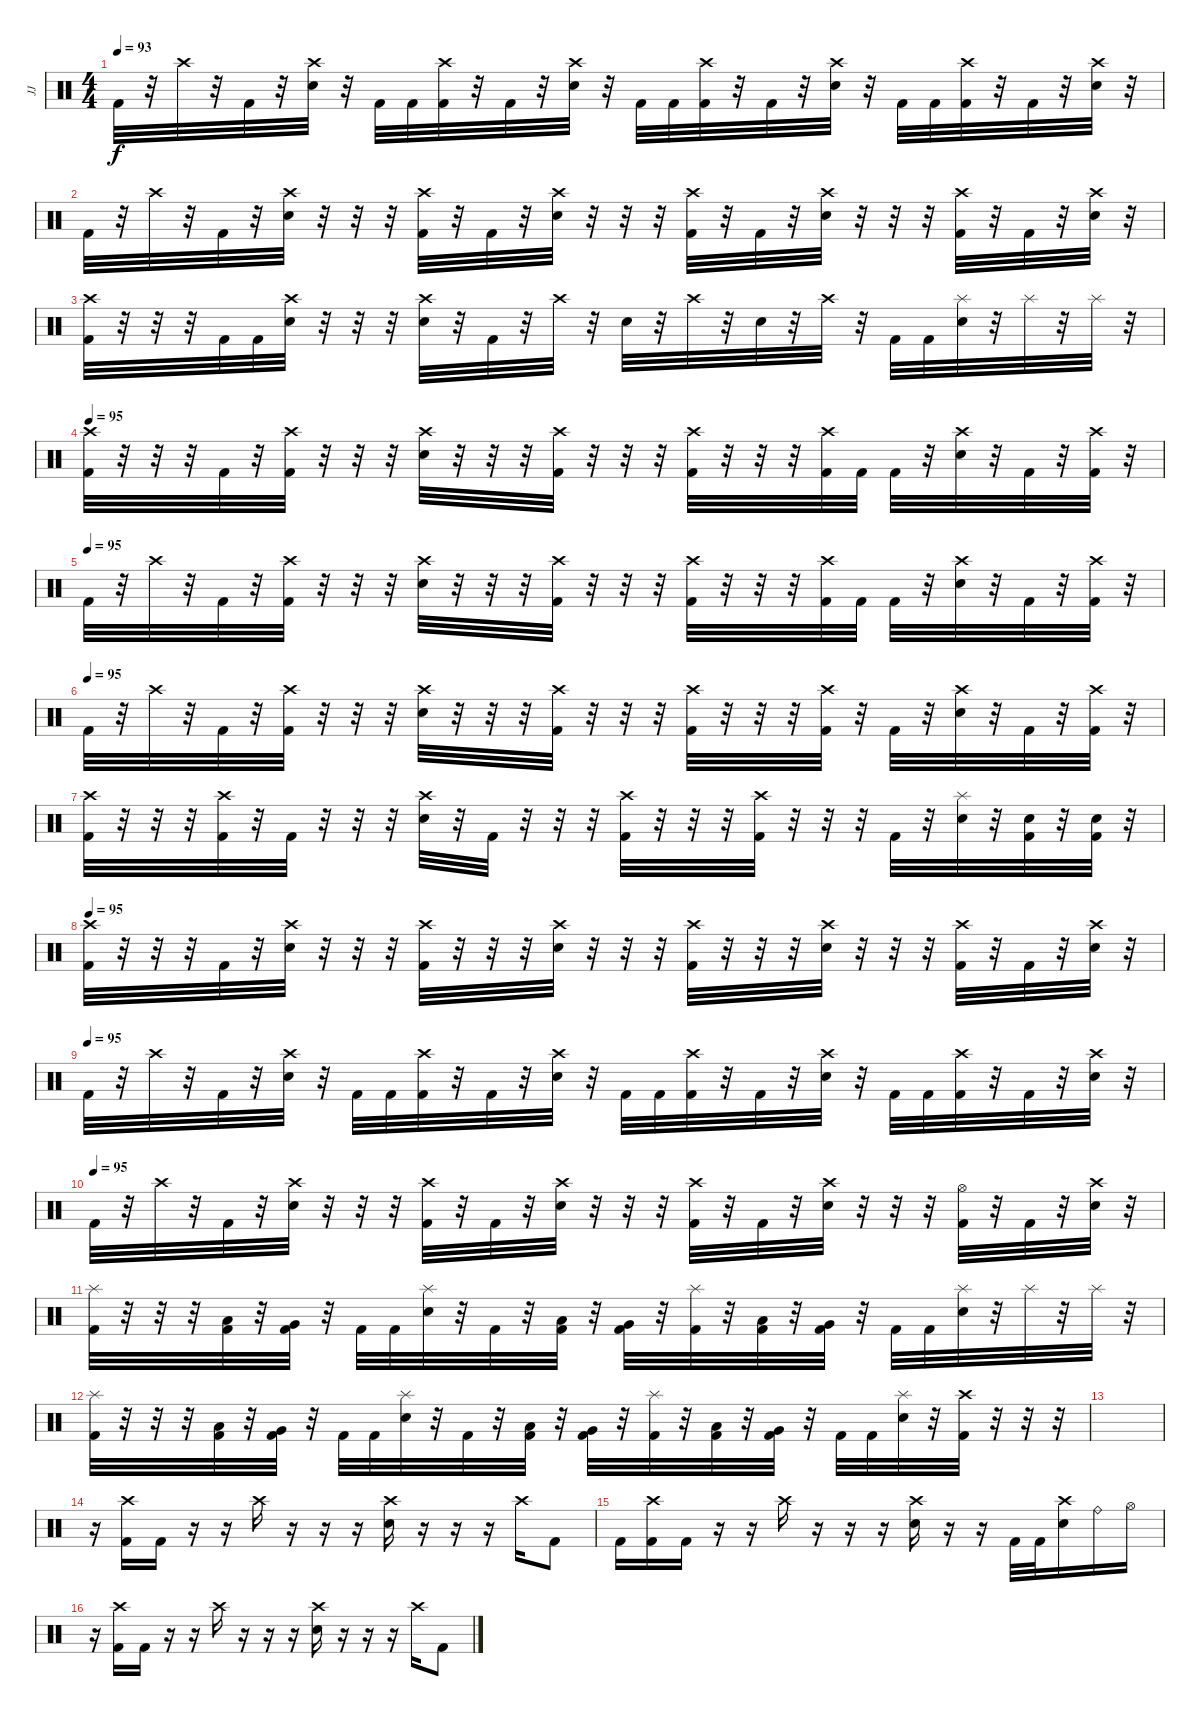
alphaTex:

\track ("JJ" "JJ") {instrument percussion}
\staff {score}
\articulation defaults
\ts (4 4)
\tempo 93
\clef neutral
\ks c "Kick (hit) 2".32{dy f volume 16}
r.32 "Crash high (hit)".32 r.32 "Kick (hit) 2".32 r.32 ("Crash high (hit)" "Electric Snare (hit)").32 r.32 "Kick (hit) 2".32 "Kick (hit) 2".32 ("Crash high (hit)" "Kick (hit) 2").32 r.32 "Kick (hit) 2".32 r.32 ("Crash high (hit)" "Electric Snare (hit)").32 r.32 "Kick (hit) 2".32 "Kick (hit) 2".32 ("Crash high (hit)" "Kick (hit) 2").32 r.32 "Kick (hit) 2".32 r.32 ("Crash high (hit)" "Electric Snare (hit)").32 r.32 "Kick (hit) 2".32 "Kick (hit) 2".32 ("Crash high (hit)" "Kick (hit) 2").32 r.32 "Kick (hit) 2".32 r.32 ("Crash high (hit)" "Electric Snare (hit)").32 r.32 |
"Kick (hit) 2".32 r.32 "Crash high (hit)".32 r.32 "Kick (hit) 2".32 r.32 ("Crash high (hit)" "Electric Snare (hit)").32 r.32 r.32 r.32 ("Crash high (hit)" "Kick (hit) 2").32 r.32 "Kick (hit) 2".32 r.32 ("Crash high (hit)" "Electric Snare (hit)").32 r.32 r.32 r.32 ("Crash high (hit)" "Kick (hit) 2").32 r.32 "Kick (hit) 2".32 r.32 ("Crash high (hit)" "Electric Snare (hit)").32 r.32 r.32 r.32 ("Crash high (hit)" "Kick (hit) 2").32 r.32 "Kick (hit) 2".32 r.32 ("Crash high (hit)" "Electric Snare (hit)").32 r.32 |
("Crash high (hit)" "Kick (hit) 2").32 r.32 r.32 r.32 "Kick (hit) 2".32 "Kick (hit) 2".32 ("Crash high (hit)" "Electric Snare (hit)").32 r.32 r.32 r.32 ("Crash high (hit)" "Electric Snare (hit)").32 r.32 "Kick (hit) 2".32 r.32 "Crash high (hit)".32 r.32 "Electric Snare (hit)".32 r.32 "Crash high (hit)".32 r.32 "Electric Snare (hit)".32 r.32 "Crash high (hit)".32 r.32 "Kick (hit) 2".32 "Kick (hit) 2".32 ("Splash (hit)" "Electric Snare (hit)").32 r.32 "Splash (hit)".32 r.32 "Splash (hit)".32 r.32 |
\tempo 95
("Crash high (hit)" "Kick (hit) 2").32 r.32 r.32 r.32 "Kick (hit) 2".32 r.32 ("Crash high (hit)" "Kick (hit) 2").32 r.32 r.32 r.32 ("Crash high (hit)" "Electric Snare (hit)").32 r.32 r.32 r.32 ("Crash high (hit)" "Kick (hit) 2").32 r.32 r.32 r.32 ("Crash high (hit)" "Kick (hit) 2").32 r.32 r.32 r.32 ("Crash high (hit)" "Kick (hit) 2").32 "Kick (hit) 2".32 "Kick (hit) 2".32 r.32 ("Crash high (hit)" "Electric Snare (hit)").32 r.32 "Kick (hit) 2".32 r.32 ("Crash high (hit)" "Kick (hit) 2").32 r.32 |
\tempo (95)
"Kick (hit) 2".32 r.32 "Crash high (hit)".32 r.32 "Kick (hit) 2".32 r.32 ("Crash high (hit)" "Kick (hit) 2").32 r.32 r.32 r.32 ("Crash high (hit)" "Electric Snare (hit)").32 r.32 r.32 r.32 ("Crash high (hit)" "Kick (hit) 2").32 r.32 r.32 r.32 ("Crash high (hit)" "Kick (hit) 2").32 r.32 r.32 r.32 ("Crash high (hit)" "Kick (hit) 2").32 "Kick (hit) 2".32 "Kick (hit) 2".32 r.32 ("Crash high (hit)" "Electric Snare (hit)").32 r.32 "Kick (hit) 2".32 r.32 ("Crash high (hit)" "Kick (hit) 2").32 r.32 |
\tempo (95)
"Kick (hit) 2".32 r.32 "Crash high (hit)".32 r.32 "Kick (hit) 2".32 r.32 ("Crash high (hit)" "Kick (hit) 2").32 r.32 r.32 r.32 ("Crash high (hit)" "Electric Snare (hit)").32 r.32 r.32 r.32 ("Crash high (hit)" "Kick (hit) 2").32 r.32 r.32 r.32 ("Crash high (hit)" "Kick (hit) 2").32 r.32 r.32 r.32 ("Crash high (hit)" "Kick (hit) 2").32 r.32 "Kick (hit) 2".32 r.32 ("Crash high (hit)" "Electric Snare (hit)").32 r.32 "Kick (hit) 2".32 r.32 ("Crash high (hit)" "Kick (hit) 2").32 r.32 |
("Crash high (hit)" "Kick (hit) 2").32 r.32 r.32 r.32 ("Crash high (hit)" "Kick (hit) 2").32 r.32 "Kick (hit) 2".32 r.32 r.32 r.32 ("Crash high (hit)" "Electric Snare (hit)").32 r.32 "Kick (hit) 2".32 r.32 r.32 r.32 ("Crash high (hit)" "Kick (hit) 2").32 r.32 r.32 r.32 ("Crash high (hit)" "Kick (hit) 2").32 r.32 r.32 r.32 "Kick (hit) 2".32 r.32 ("Splash (hit)" "Electric Snare (hit)").32 r.32 ("Electric Snare (hit)" "Kick (hit) 2").32 r.32 ("Electric Snare (hit)" "Kick (hit) 2").32 r.32 |
\tempo 95
("Crash high (hit)" "Kick (hit) 2").32 r.32 r.32 r.32 "Kick (hit) 2".32 r.32 ("Crash high (hit)" "Electric Snare (hit)").32 r.32 r.32 r.32 ("Crash high (hit)" "Kick (hit) 2").32 r.32 r.32 r.32 ("Crash high (hit)" "Electric Snare (hit)").32 r.32 r.32 r.32 ("Crash high (hit)" "Kick (hit) 2").32 r.32 r.32 r.32 ("Crash high (hit)" "Electric Snare (hit)").32 r.32 r.32 r.32 ("Crash high (hit)" "Kick (hit) 2").32 r.32 "Kick (hit) 2".32 r.32 ("Crash high (hit)" "Electric Snare (hit)").32 r.32 |
\tempo (95)
"Kick (hit) 2".32 r.32 "Crash high (hit)".32 r.32 "Kick (hit) 2".32 r.32 ("Crash high (hit)" "Electric Snare (hit)").32 r.32 "Kick (hit) 2".32 "Kick (hit) 2".32 ("Crash high (hit)" "Kick (hit) 2").32 r.32 "Kick (hit) 2".32 r.32 ("Crash high (hit)" "Electric Snare (hit)").32 r.32 "Kick (hit) 2".32 "Kick (hit) 2".32 ("Crash high (hit)" "Kick (hit) 2").32 r.32 "Kick (hit) 2".32 r.32 ("Crash high (hit)" "Electric Snare (hit)").32 r.32 "Kick (hit) 2".32 "Kick (hit) 2".32 ("Crash high (hit)" "Kick (hit) 2").32 r.32 "Kick (hit) 2".32 r.32 ("Crash high (hit)" "Electric Snare (hit)").32 r.32 |
\tempo (95)
"Kick (hit) 2".32 r.32 "Crash high (hit)".32 r.32 "Kick (hit) 2".32 r.32 ("Crash high (hit)" "Electric Snare (hit)").32 r.32 r.32 r.32 ("Crash high (hit)" "Kick (hit) 2").32 r.32 "Kick (hit) 2".32 r.32 ("Crash high (hit)" "Electric Snare (hit)").32 r.32 r.32 r.32 ("Crash high (hit)" "Kick (hit) 2").32 r.32 "Kick (hit) 2".32 r.32 ("Crash high (hit)" "Electric Snare (hit)").32 r.32 r.32 r.32 ("Hi-Hat (open)" "Kick (hit) 2").32 r.32 "Kick (hit) 2".32 r.32 ("Crash high (hit)" "Electric Snare (hit)").32 r.32 |
("Splash (hit)" "Kick (hit) 2").32 r.32 r.32 r.32 ("Low Tom (hit)" "Kick (hit) 2").32 r.32 ("Very Low Tom (hit)" "Kick (hit) 2").32 r.32 "Kick (hit) 2".32 "Kick (hit) 2".32 ("Splash (hit)" "Electric Snare (hit)").32 r.32 "Kick (hit) 2".32 r.32 ("Low Tom (hit)" "Kick (hit) 2").32 r.32 ("Very Low Tom (hit)" "Kick (hit) 2").32 r.32 ("Splash (hit)" "Kick (hit) 2").32 r.32 ("Low Tom (hit)" "Kick (hit) 2").32 r.32 ("Very Low Tom (hit)" "Kick (hit) 2").32 r.32 "Kick (hit) 2".32 "Kick (hit) 2".32 ("Splash (hit)" "Electric Snare (hit)").32 r.32 "Splash (hit)".32 r.32 "Splash (hit)".32 r.32 |
("Splash (hit)" "Kick (hit) 2").32 r.32 r.32 r.32 ("Low Tom (hit)" "Kick (hit) 2").32 r.32 ("Very Low Tom (hit)" "Kick (hit) 2").32 r.32 "Kick (hit) 2".32 "Kick (hit) 2".32 ("Splash (hit)" "Electric Snare (hit)").32 r.32 "Kick (hit) 2".32 r.32 ("Low Tom (hit)" "Kick (hit) 2").32 r.32 ("Very Low Tom (hit)" "Kick (hit) 2").32 r.32 ("Splash (hit)" "Kick (hit) 2").32 r.32 ("Low Tom (hit)" "Kick (hit) 2").32 r.32 ("Very Low Tom (hit)" "Kick (hit) 2").32 r.32 "Kick (hit) 2".32 "Kick (hit) 2".32 ("Splash (hit)" "Electric Snare (hit)").32 r.32 ("Crash high (hit)" "Kick (hit) 2").32 r.32 r.32 r.32 |
|
r.16 ("Crash high (hit)" "Kick (hit) 2").16 "Kick (hit) 2".16 r.16 r.16 "Crash high (hit)".16 r.16 r.16 r.16 ("Crash high (hit)" "Electric Snare (hit)").16 r.16 r.16 r.16 "Crash high (hit)".16 "Kick (hit) 2".8 |
"Kick (hit) 2".16 ("Crash high (hit)" "Kick (hit) 2").16 "Kick (hit) 2".16 r.16 r.16 "Crash high (hit)".16 r.16 r.16 r.16 ("Crash high (hit)" "Electric Snare (hit)").16 r.16 r.16 "Kick (hit) 2".32 "Kick (hit) 2".32 ("Crash high (hit)" "Electric Snare (hit)").16 "Ride (bell)".16 "Hi-Hat (open)".16 |
r.16 ("Crash high (hit)" "Kick (hit) 2").16 "Kick (hit) 2".16 r.16 r.16 "Crash high (hit)".16 r.16 r.16 r.16 ("Crash high (hit)" "Electric Snare (hit)").16 r.16 r.16 r.16 "Crash high (hit)".16 "Kick (hit) 2".8
